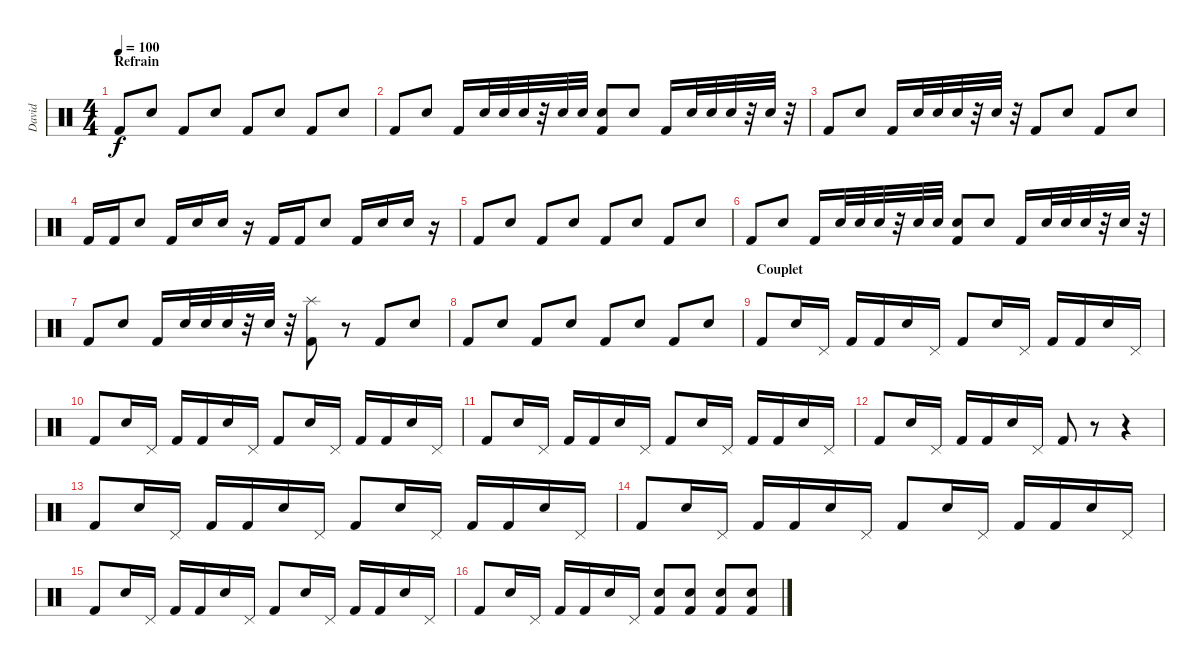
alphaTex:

\track ("David" "David") {instrument percussion}
\staff {score}
\articulation defaults
\ts (4 4)
\section ("" "Refrain")
\tempo 100
\clef neutral
\ks c "Kick (hit) 2".8{dy f} "Electric Snare (hit)".8 "Kick (hit) 2".8 "Electric Snare (hit)".8 "Kick (hit) 2".8 "Electric Snare (hit)".8 "Kick (hit) 2".8 "Electric Snare (hit)".8
|
"Kick (hit) 2".8 "Electric Snare (hit)".8 "Kick (hit) 2".16 "Electric Snare (hit)".32 "Electric Snare (hit)".32 "Electric Snare (hit)".32 r.32 "Electric Snare (hit)".32 "Electric Snare (hit)".32 ("Electric Snare (hit)" "Kick (hit) 2").8 "Electric Snare (hit)".8 "Kick (hit) 2".16 "Electric Snare (hit)".32 "Electric Snare (hit)".32 "Electric Snare (hit)".32 r.32 "Electric Snare (hit)".32 r.32 |
"Kick (hit) 2".8 "Electric Snare (hit)".8 "Kick (hit) 2".16 "Electric Snare (hit)".32 "Electric Snare (hit)".32 "Electric Snare (hit)".32 r.32 "Electric Snare (hit)".32 r.32 "Kick (hit) 2".8 "Electric Snare (hit)".8 "Kick (hit) 2".8 "Electric Snare (hit)".8 |
"Kick (hit) 2".16 "Kick (hit) 2".16 "Electric Snare (hit)".8 "Kick (hit) 2".16 "Electric Snare (hit)".16 "Electric Snare (hit)".16 r.16 "Kick (hit) 2".16 "Kick (hit) 2".16 "Electric Snare (hit)".8 "Kick (hit) 2".16 "Electric Snare (hit)".16 "Electric Snare (hit)".16 r.16 |
"Kick (hit) 2".8 "Electric Snare (hit)".8 "Kick (hit) 2".8 "Electric Snare (hit)".8 "Kick (hit) 2".8 "Electric Snare (hit)".8 "Kick (hit) 2".8 "Electric Snare (hit)".8 |
"Kick (hit) 2".8 "Electric Snare (hit)".8 "Kick (hit) 2".16 "Electric Snare (hit)".32 "Electric Snare (hit)".32 "Electric Snare (hit)".32 r.32 "Electric Snare (hit)".32 "Electric Snare (hit)".32 ("Electric Snare (hit)" "Kick (hit) 2").8 "Electric Snare (hit)".8 "Kick (hit) 2".16 "Electric Snare (hit)".32 "Electric Snare (hit)".32 "Electric Snare (hit)".32 r.32 "Electric Snare (hit)".32 r.32 |
"Kick (hit) 2".8 "Electric Snare (hit)".8 "Kick (hit) 2".16 "Electric Snare (hit)".32 "Electric Snare (hit)".32 "Electric Snare (hit)".32 r.32 "Electric Snare (hit)".32 r.32 ("Splash (hit)" "Kick (hit) 2").8 r.8 "Kick (hit) 2".8 "Electric Snare (hit)".8 |
"Kick (hit) 2".8 "Electric Snare (hit)".8 "Kick (hit) 2".8 "Electric Snare (hit)".8 "Kick (hit) 2".8 "Electric Snare (hit)".8 "Kick (hit) 2".8 "Electric Snare (hit)".8 |
\section ("" "Couplet")
"Kick (hit) 2".8 "Electric Snare (hit)".16 "Pedal Hi-Hat (hit)".16 "Kick (hit) 2".16 "Kick (hit) 2".16 "Electric Snare (hit)".16 "Pedal Hi-Hat (hit)".16 "Kick (hit) 2".8 "Electric Snare (hit)".16 "Pedal Hi-Hat (hit)".16 "Kick (hit) 2".16 "Kick (hit) 2".16 "Electric Snare (hit)".16 "Pedal Hi-Hat (hit)".16 |
"Kick (hit) 2".8 "Electric Snare (hit)".16 "Pedal Hi-Hat (hit)".16 "Kick (hit) 2".16 "Kick (hit) 2".16 "Electric Snare (hit)".16 "Pedal Hi-Hat (hit)".16 "Kick (hit) 2".8 "Electric Snare (hit)".16 "Pedal Hi-Hat (hit)".16 "Kick (hit) 2".16 "Kick (hit) 2".16 "Electric Snare (hit)".16 "Pedal Hi-Hat (hit)".16 |
"Kick (hit) 2".8 "Electric Snare (hit)".16 "Pedal Hi-Hat (hit)".16 "Kick (hit) 2".16 "Kick (hit) 2".16 "Electric Snare (hit)".16 "Pedal Hi-Hat (hit)".16 "Kick (hit) 2".8 "Electric Snare (hit)".16 "Pedal Hi-Hat (hit)".16 "Kick (hit) 2".16 "Kick (hit) 2".16 "Electric Snare (hit)".16 "Pedal Hi-Hat (hit)".16 |
"Kick (hit) 2".8 "Electric Snare (hit)".16 "Pedal Hi-Hat (hit)".16 "Kick (hit) 2".16 "Kick (hit) 2".16 "Electric Snare (hit)".16 "Pedal Hi-Hat (hit)".16 "Kick (hit) 2".8 r.8 r.4 |
"Kick (hit) 2".8 "Electric Snare (hit)".16 "Pedal Hi-Hat (hit)".16 "Kick (hit) 2".16 "Kick (hit) 2".16 "Electric Snare (hit)".16 "Pedal Hi-Hat (hit)".16 "Kick (hit) 2".8 "Electric Snare (hit)".16 "Pedal Hi-Hat (hit)".16 "Kick (hit) 2".16 "Kick (hit) 2".16 "Electric Snare (hit)".16 "Pedal Hi-Hat (hit)".16 |
"Kick (hit) 2".8 "Electric Snare (hit)".16 "Pedal Hi-Hat (hit)".16 "Kick (hit) 2".16 "Kick (hit) 2".16 "Electric Snare (hit)".16 "Pedal Hi-Hat (hit)".16 "Kick (hit) 2".8 "Electric Snare (hit)".16 "Pedal Hi-Hat (hit)".16 "Kick (hit) 2".16 "Kick (hit) 2".16 "Electric Snare (hit)".16 "Pedal Hi-Hat (hit)".16 |
"Kick (hit) 2".8 "Electric Snare (hit)".16 "Pedal Hi-Hat (hit)".16 "Kick (hit) 2".16 "Kick (hit) 2".16 "Electric Snare (hit)".16 "Pedal Hi-Hat (hit)".16 "Kick (hit) 2".8 "Electric Snare (hit)".16 "Pedal Hi-Hat (hit)".16 "Kick (hit) 2".16 "Kick (hit) 2".16 "Electric Snare (hit)".16 "Pedal Hi-Hat (hit)".16 |
"Kick (hit) 2".8 "Electric Snare (hit)".16 "Pedal Hi-Hat (hit)".16 "Kick (hit) 2".16 "Kick (hit) 2".16 "Electric Snare (hit)".16 "Pedal Hi-Hat (hit)".16 ("Electric Snare (hit)" "Kick (hit) 2").8 ("Electric Snare (hit)" "Kick (hit) 2").8 ("Electric Snare (hit)" "Kick (hit) 2").8 ("Electric Snare (hit)" "Kick (hit) 2").8
